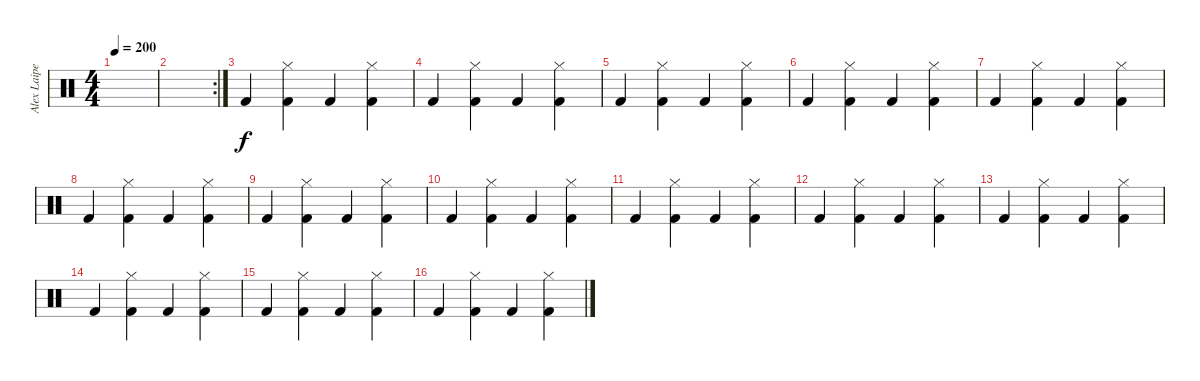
\track ("Alex Laipeneiks - Drums" "Alex Laipe") {instrument percussion}
\staff {score}
\articulation defaults
\ts (4 4)
\tempo 200
\clef neutral
\ks c
|
\rc 2
|
"Kick (hit) 2".4 ("Hi-Hat (closed)" "Kick (hit) 2").4 "Kick (hit) 2".4 ("Hi-Hat (closed)" "Kick (hit) 2").4 |
"Kick (hit) 2".4 ("Hi-Hat (closed)" "Kick (hit) 2").4 "Kick (hit) 2".4 ("Hi-Hat (closed)" "Kick (hit) 2").4 |
"Kick (hit) 2".4 ("Hi-Hat (closed)" "Kick (hit) 2").4 "Kick (hit) 2".4 ("Hi-Hat (closed)" "Kick (hit) 2").4 |
"Kick (hit) 2".4 ("Hi-Hat (closed)" "Kick (hit) 2").4 "Kick (hit) 2".4 ("Hi-Hat (closed)" "Kick (hit) 2").4 |
"Kick (hit) 2".4 ("Hi-Hat (closed)" "Kick (hit) 2").4 "Kick (hit) 2".4 ("Hi-Hat (closed)" "Kick (hit) 2").4 |
"Kick (hit) 2".4 ("Hi-Hat (closed)" "Kick (hit) 2").4 "Kick (hit) 2".4 ("Hi-Hat (closed)" "Kick (hit) 2").4 |
"Kick (hit) 2".4 ("Hi-Hat (closed)" "Kick (hit) 2").4 "Kick (hit) 2".4 ("Hi-Hat (closed)" "Kick (hit) 2").4 |
"Kick (hit) 2".4 ("Hi-Hat (closed)" "Kick (hit) 2").4 "Kick (hit) 2".4 ("Hi-Hat (closed)" "Kick (hit) 2").4 |
"Kick (hit) 2".4 ("Hi-Hat (closed)" "Kick (hit) 2").4 "Kick (hit) 2".4 ("Hi-Hat (closed)" "Kick (hit) 2").4 |
"Kick (hit) 2".4 ("Hi-Hat (closed)" "Kick (hit) 2").4 "Kick (hit) 2".4 ("Hi-Hat (closed)" "Kick (hit) 2").4 |
"Kick (hit) 2".4 ("Hi-Hat (closed)" "Kick (hit) 2").4 "Kick (hit) 2".4 ("Hi-Hat (closed)" "Kick (hit) 2").4 |
"Kick (hit) 2".4 ("Hi-Hat (closed)" "Kick (hit) 2").4 "Kick (hit) 2".4 ("Hi-Hat (closed)" "Kick (hit) 2").4 |
"Kick (hit) 2".4 ("Hi-Hat (closed)" "Kick (hit) 2").4 "Kick (hit) 2".4 ("Hi-Hat (closed)" "Kick (hit) 2").4 |
"Kick (hit) 2".4 ("Hi-Hat (closed)" "Kick (hit) 2").4 "Kick (hit) 2".4 ("Hi-Hat (closed)" "Kick (hit) 2").4
